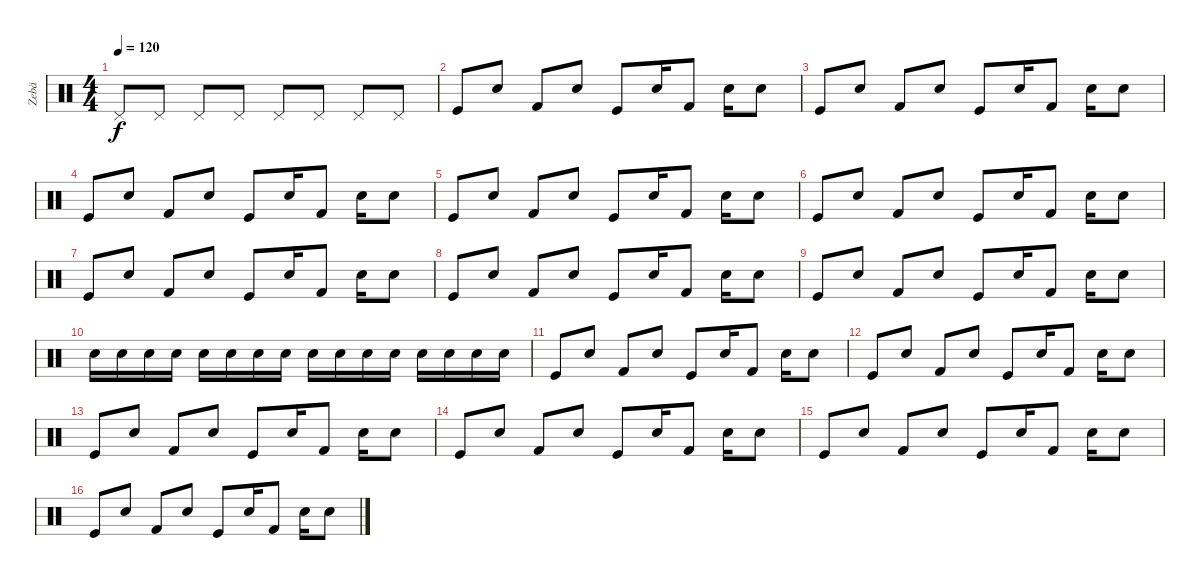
\track ("Zebä" "Zebä") {instrument percussion}
\staff {score}
\articulation defaults
\ts (4 4)
\tempo 120
\clef neutral
\ks c "Pedal Hi-Hat (hit)".8{dy f} "Pedal Hi-Hat (hit)".8 "Pedal Hi-Hat (hit)".8 "Pedal Hi-Hat (hit)".8 "Pedal Hi-Hat (hit)".8 "Pedal Hi-Hat (hit)".8 "Pedal Hi-Hat (hit)".8 "Pedal Hi-Hat (hit)".8
|
"Kick (hit)".8 "Snare (hit) 2".8 "Kick (hit) 2".8 "Electric Snare (hit)".8 "Kick (hit)".8 "Snare (hit) 2".16 "Kick (hit) 2".8 "Electric Snare (hit)".16 "Snare (hit) 2".8 |
"Kick (hit)".8 "Snare (hit) 2".8 "Kick (hit) 2".8 "Electric Snare (hit)".8 "Kick (hit)".8 "Snare (hit) 2".16 "Kick (hit) 2".8 "Electric Snare (hit)".16 "Snare (hit) 2".8 |
"Kick (hit)".8 "Snare (hit) 2".8 "Kick (hit) 2".8 "Electric Snare (hit)".8 "Kick (hit)".8 "Snare (hit) 2".16 "Kick (hit) 2".8 "Electric Snare (hit)".16 "Snare (hit) 2".8 |
"Kick (hit)".8 "Snare (hit) 2".8 "Kick (hit) 2".8 "Electric Snare (hit)".8 "Kick (hit)".8 "Snare (hit) 2".16 "Kick (hit) 2".8 "Electric Snare (hit)".16 "Snare (hit) 2".8 |
"Kick (hit)".8 "Snare (hit) 2".8 "Kick (hit) 2".8 "Electric Snare (hit)".8 "Kick (hit)".8 "Snare (hit) 2".16 "Kick (hit) 2".8 "Electric Snare (hit)".16 "Snare (hit) 2".8 |
"Kick (hit)".8 "Snare (hit) 2".8 "Kick (hit) 2".8 "Electric Snare (hit)".8 "Kick (hit)".8 "Snare (hit) 2".16 "Kick (hit) 2".8 "Electric Snare (hit)".16 "Snare (hit) 2".8 |
"Kick (hit)".8 "Snare (hit) 2".8 "Kick (hit) 2".8 "Electric Snare (hit)".8 "Kick (hit)".8 "Snare (hit) 2".16 "Kick (hit) 2".8 "Electric Snare (hit)".16 "Snare (hit) 2".8 |
"Kick (hit)".8 "Snare (hit) 2".8 "Kick (hit) 2".8 "Electric Snare (hit)".8 "Kick (hit)".8 "Snare (hit) 2".16 "Kick (hit) 2".8 "Electric Snare (hit)".16 "Snare (hit) 2".8 |
"Snare (hit) 2".16 "Snare (hit) 2".16 "Snare (hit) 2".16 "Snare (hit) 2".16 "Snare (hit) 2".16 "Snare (hit) 2".16 "Snare (hit) 2".16 "Snare (hit) 2".16 "Electric Snare (hit)".16 "Electric Snare (hit)".16 "Electric Snare (hit)".16 "Electric Snare (hit)".16 "Electric Snare (hit)".16 "Electric Snare (hit)".16 "Electric Snare (hit)".16 "Electric Snare (hit)".16 |
"Kick (hit)".8 "Snare (hit) 2".8 "Kick (hit) 2".8 "Electric Snare (hit)".8 "Kick (hit)".8 "Snare (hit) 2".16 "Kick (hit) 2".8 "Electric Snare (hit)".16 "Snare (hit) 2".8 |
"Kick (hit)".8 "Snare (hit) 2".8 "Kick (hit) 2".8 "Electric Snare (hit)".8 "Kick (hit)".8 "Snare (hit) 2".16 "Kick (hit) 2".8 "Electric Snare (hit)".16 "Snare (hit) 2".8 |
"Kick (hit)".8 "Snare (hit) 2".8 "Kick (hit) 2".8 "Electric Snare (hit)".8 "Kick (hit)".8 "Snare (hit) 2".16 "Kick (hit) 2".8 "Electric Snare (hit)".16 "Snare (hit) 2".8 |
"Kick (hit)".8 "Snare (hit) 2".8 "Kick (hit) 2".8 "Electric Snare (hit)".8 "Kick (hit)".8 "Snare (hit) 2".16 "Kick (hit) 2".8 "Electric Snare (hit)".16 "Snare (hit) 2".8 |
"Kick (hit)".8 "Snare (hit) 2".8 "Kick (hit) 2".8 "Electric Snare (hit)".8 "Kick (hit)".8 "Snare (hit) 2".16 "Kick (hit) 2".8 "Electric Snare (hit)".16 "Snare (hit) 2".8 |
"Kick (hit)".8 "Snare (hit) 2".8 "Kick (hit) 2".8 "Electric Snare (hit)".8 "Kick (hit)".8 "Snare (hit) 2".16 "Kick (hit) 2".8 "Electric Snare (hit)".16 "Snare (hit) 2".8
